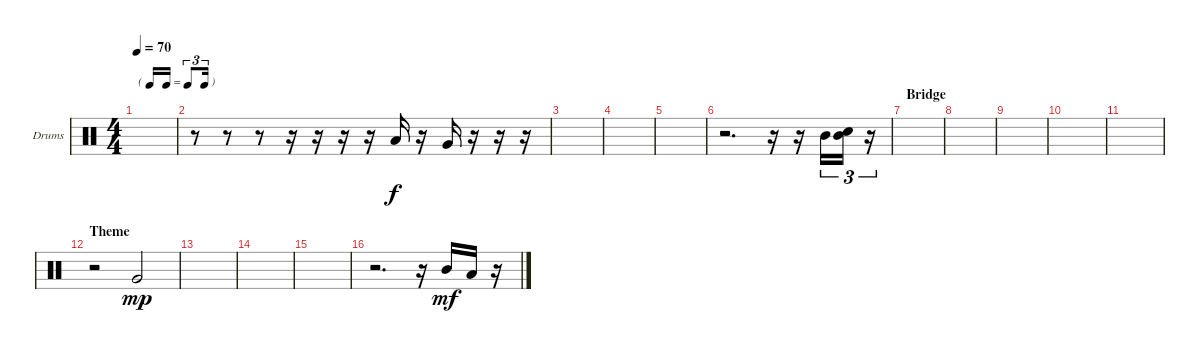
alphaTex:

\bracketExtendMode groupsimilarinstruments
\firstSystemTrackNameOrientation horizontal
\otherSystemsTrackNameOrientation horizontal
\track ("Tom" "Drums") {instrument percussion}
\staff {score}
\articulation defaults
\ts (4 4)
\tf triplet16th
\tempo 70
\clef neutral
\scale
0.333333
\ks aminor
|
\scale
0.333333 r.8 r.8 r.8 r.16 r.16 r.16 r.16 "Low Tom (hit)".16 r.16 "Very Low Tom (hit)".16 r.16 r.16 r.16 |
\scale
0.333333 |
|
\scale
0.333333 |
r.2{d} r.16 r.16 "Mid Tom (hit)".16{tu (3 2)} ("Mid Tom (hit)" "Snare (hit) 2").16{tu (3 2)} r.16{tu (3 2)} |
\section ("" "Bridge")
\scale
0.333333 |
\scale
0.333333 |
\scale
0.333333 |
\scale
0.333333 |
\scale
0.333333 |
\section ("" "Theme")
\scale
0.333333 r.2 "Very Low Tom (hit)".2{dy mp} |
\scale
0.333333 |
|
|
r.2{d} r.16 "Mid Tom (hit)".16{dy mf} "Low Tom (hit)".16 r.16
